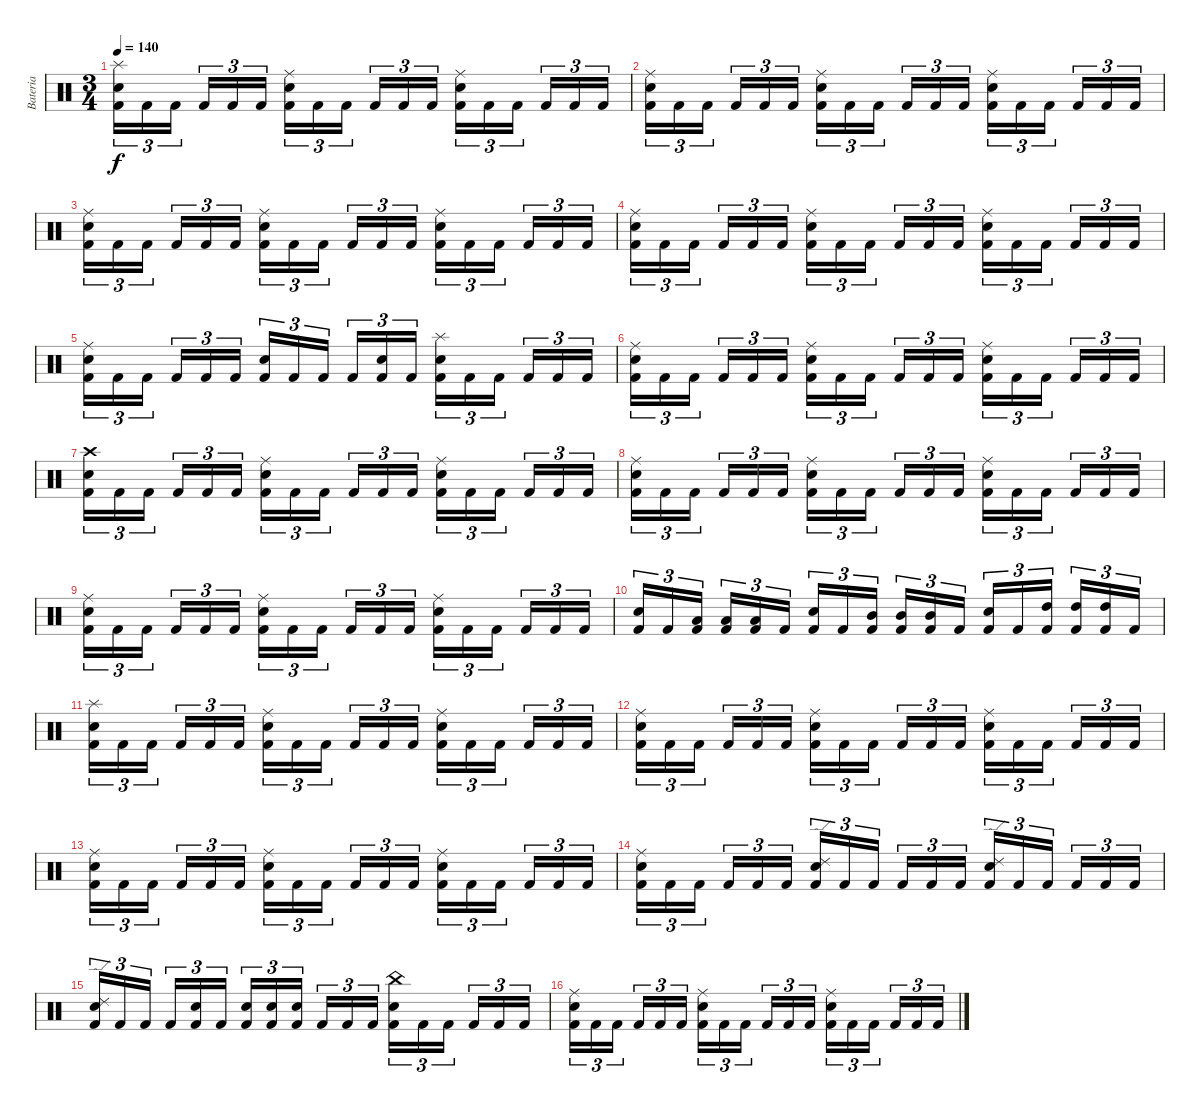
\track ("Bateria" "Bateria") {instrument percussion}
\staff {score}
\articulation defaults
\ts (3 4)
\tempo 140
\clef neutral
\ks c
("Kick (hit) 2" "Electric Snare (hit)" "Splash (hit)").16{tu (3 2) dy f} "Kick (hit) 2".16{tu (3 2)} "Kick (hit) 2".16{tu (3 2)} "Kick (hit) 2".16{tu (3 2)} "Kick (hit) 2".16{tu (3 2)} "Kick (hit) 2".16{tu (3 2)} ("Kick (hit) 2" "Electric Snare (hit)" "Ride (middle)").16{tu (3 2)} "Kick (hit) 2".16{tu (3 2)} "Kick (hit) 2".16{tu (3 2)} "Kick (hit) 2".16{tu (3 2)} "Kick (hit) 2".16{tu (3 2)} "Kick (hit) 2".16{tu (3 2)} ("Kick (hit) 2" "Electric Snare (hit)" "Ride (middle)").16{tu (3 2)} "Kick (hit) 2".16{tu (3 2)} "Kick (hit) 2".16{tu (3 2)} "Kick (hit) 2".16{tu (3 2)} "Kick (hit) 2".16{tu (3 2)} "Kick (hit) 2".16{tu (3 2)} |
("Kick (hit) 2" "Electric Snare (hit)" "Ride (middle)").16{tu (3 2)} "Kick (hit) 2".16{tu (3 2)} "Kick (hit) 2".16{tu (3 2)} "Kick (hit) 2".16{tu (3 2)} "Kick (hit) 2".16{tu (3 2)} "Kick (hit) 2".16{tu (3 2)} ("Kick (hit) 2" "Electric Snare (hit)" "Ride (middle)").16{tu (3 2)} "Kick (hit) 2".16{tu (3 2)} "Kick (hit) 2".16{tu (3 2)} "Kick (hit) 2".16{tu (3 2)} "Kick (hit) 2".16{tu (3 2)} "Kick (hit) 2".16{tu (3 2)} ("Kick (hit) 2" "Electric Snare (hit)" "Ride (middle)").16{tu (3 2)} "Kick (hit) 2".16{tu (3 2)} "Kick (hit) 2".16{tu (3 2)} "Kick (hit) 2".16{tu (3 2)} "Kick (hit) 2".16{tu (3 2)} "Kick (hit) 2".16{tu (3 2)} |
("Kick (hit) 2" "Electric Snare (hit)" "Ride (middle)").16{tu (3 2)} "Kick (hit) 2".16{tu (3 2)} "Kick (hit) 2".16{tu (3 2)} "Kick (hit) 2".16{tu (3 2)} "Kick (hit) 2".16{tu (3 2)} "Kick (hit) 2".16{tu (3 2)} ("Kick (hit) 2" "Electric Snare (hit)" "Ride (middle)").16{tu (3 2)} "Kick (hit) 2".16{tu (3 2)} "Kick (hit) 2".16{tu (3 2)} "Kick (hit) 2".16{tu (3 2)} "Kick (hit) 2".16{tu (3 2)} "Kick (hit) 2".16{tu (3 2)} ("Kick (hit) 2" "Electric Snare (hit)" "Ride (middle)").16{tu (3 2)} "Kick (hit) 2".16{tu (3 2)} "Kick (hit) 2".16{tu (3 2)} "Kick (hit) 2".16{tu (3 2)} "Kick (hit) 2".16{tu (3 2)} "Kick (hit) 2".16{tu (3 2)} |
("Kick (hit) 2" "Electric Snare (hit)" "Ride (middle)").16{tu (3 2)} "Kick (hit) 2".16{tu (3 2)} "Kick (hit) 2".16{tu (3 2)} "Kick (hit) 2".16{tu (3 2)} "Kick (hit) 2".16{tu (3 2)} "Kick (hit) 2".16{tu (3 2)} ("Kick (hit) 2" "Electric Snare (hit)" "Ride (middle)").16{tu (3 2)} "Kick (hit) 2".16{tu (3 2)} "Kick (hit) 2".16{tu (3 2)} "Kick (hit) 2".16{tu (3 2)} "Kick (hit) 2".16{tu (3 2)} "Kick (hit) 2".16{tu (3 2)} ("Kick (hit) 2" "Electric Snare (hit)" "Ride (middle)").16{tu (3 2)} "Kick (hit) 2".16{tu (3 2)} "Kick (hit) 2".16{tu (3 2)} "Kick (hit) 2".16{tu (3 2)} "Kick (hit) 2".16{tu (3 2)} "Kick (hit) 2".16{tu (3 2)} |
("Kick (hit) 2" "Electric Snare (hit)" "Ride (middle)").16{tu (3 2)} "Kick (hit) 2".16{tu (3 2)} "Kick (hit) 2".16{tu (3 2)} "Kick (hit) 2".16{tu (3 2)} "Kick (hit) 2".16{tu (3 2)} "Kick (hit) 2".16{tu (3 2)} ("Kick (hit) 2" "Electric Snare (hit)").16{tu (3 2)} "Kick (hit) 2".16{tu (3 2)} "Kick (hit) 2".16{tu (3 2)} "Kick (hit) 2".16{tu (3 2)} ("Kick (hit) 2" "Electric Snare (hit)").16{tu (3 2)} "Kick (hit) 2".16{tu (3 2)} ("Kick (hit) 2" "Electric Snare (hit)" "Splash (hit)").16{tu (3 2)} "Kick (hit) 2".16{tu (3 2)} "Kick (hit) 2".16{tu (3 2)} "Kick (hit) 2".16{tu (3 2)} "Kick (hit) 2".16{tu (3 2)} "Kick (hit) 2".16{tu (3 2)} |
("Kick (hit) 2" "Electric Snare (hit)" "Ride (middle)").16{tu (3 2)} "Kick (hit) 2".16{tu (3 2)} "Kick (hit) 2".16{tu (3 2)} "Kick (hit) 2".16{tu (3 2)} "Kick (hit) 2".16{tu (3 2)} "Kick (hit) 2".16{tu (3 2)} ("Kick (hit) 2" "Electric Snare (hit)" "Ride (middle)").16{tu (3 2)} "Kick (hit) 2".16{tu (3 2)} "Kick (hit) 2".16{tu (3 2)} "Kick (hit) 2".16{tu (3 2)} "Kick (hit) 2".16{tu (3 2)} "Kick (hit) 2".16{tu (3 2)} ("Kick (hit) 2" "Electric Snare (hit)" "Ride (middle)").16{tu (3 2)} "Kick (hit) 2".16{tu (3 2)} "Kick (hit) 2".16{tu (3 2)} "Kick (hit) 2".16{tu (3 2)} "Kick (hit) 2".16{tu (3 2)} "Kick (hit) 2".16{tu (3 2)} |
("Kick (hit) 2" "Electric Snare (hit)" "Crash high (hit)").16{tu (3 2)} "Kick (hit) 2".16{tu (3 2)} "Kick (hit) 2".16{tu (3 2)} "Kick (hit) 2".16{tu (3 2)} "Kick (hit) 2".16{tu (3 2)} "Kick (hit) 2".16{tu (3 2)} ("Kick (hit) 2" "Electric Snare (hit)" "Ride (middle)").16{tu (3 2)} "Kick (hit) 2".16{tu (3 2)} "Kick (hit) 2".16{tu (3 2)} "Kick (hit) 2".16{tu (3 2)} "Kick (hit) 2".16{tu (3 2)} "Kick (hit) 2".16{tu (3 2)} ("Kick (hit) 2" "Electric Snare (hit)" "Ride (middle)").16{tu (3 2)} "Kick (hit) 2".16{tu (3 2)} "Kick (hit) 2".16{tu (3 2)} "Kick (hit) 2".16{tu (3 2)} "Kick (hit) 2".16{tu (3 2)} "Kick (hit) 2".16{tu (3 2)} |
("Kick (hit) 2" "Electric Snare (hit)" "Ride (middle)").16{tu (3 2)} "Kick (hit) 2".16{tu (3 2)} "Kick (hit) 2".16{tu (3 2)} "Kick (hit) 2".16{tu (3 2)} "Kick (hit) 2".16{tu (3 2)} "Kick (hit) 2".16{tu (3 2)} ("Kick (hit) 2" "Electric Snare (hit)" "Ride (middle)").16{tu (3 2)} "Kick (hit) 2".16{tu (3 2)} "Kick (hit) 2".16{tu (3 2)} "Kick (hit) 2".16{tu (3 2)} "Kick (hit) 2".16{tu (3 2)} "Kick (hit) 2".16{tu (3 2)} ("Kick (hit) 2" "Electric Snare (hit)" "Ride (middle)").16{tu (3 2)} "Kick (hit) 2".16{tu (3 2)} "Kick (hit) 2".16{tu (3 2)} "Kick (hit) 2".16{tu (3 2)} "Kick (hit) 2".16{tu (3 2)} "Kick (hit) 2".16{tu (3 2)} |
("Kick (hit) 2" "Electric Snare (hit)" "Ride (middle)").16{tu (3 2)} "Kick (hit) 2".16{tu (3 2)} "Kick (hit) 2".16{tu (3 2)} "Kick (hit) 2".16{tu (3 2)} "Kick (hit) 2".16{tu (3 2)} "Kick (hit) 2".16{tu (3 2)} ("Kick (hit) 2" "Electric Snare (hit)" "Ride (middle)").16{tu (3 2)} "Kick (hit) 2".16{tu (3 2)} "Kick (hit) 2".16{tu (3 2)} "Kick (hit) 2".16{tu (3 2)} "Kick (hit) 2".16{tu (3 2)} "Kick (hit) 2".16{tu (3 2)} ("Kick (hit) 2" "Electric Snare (hit)" "Ride (middle)").16{tu (3 2)} "Kick (hit) 2".16{tu (3 2)} "Kick (hit) 2".16{tu (3 2)} "Kick (hit) 2".16{tu (3 2)} "Kick (hit) 2".16{tu (3 2)} "Kick (hit) 2".16{tu (3 2)} |
("Kick (hit) 2" "Electric Snare (hit)").16{tu (3 2)} "Kick (hit) 2".16{tu (3 2)} ("Kick (hit) 2" "Low Tom (hit)").16{tu (3 2)} ("Kick (hit) 2" "Low Tom (hit)").16{tu (3 2)} ("Kick (hit) 2" "Low Tom (hit)").16{tu (3 2)} "Kick (hit) 2".16{tu (3 2)} ("Kick (hit) 2" "Electric Snare (hit)").16{tu (3 2)} "Kick (hit) 2".16{tu (3 2)} ("Kick (hit) 2" "Mid Tom (hit)").16{tu (3 2)} ("Kick (hit) 2" "Mid Tom (hit)").16{tu (3 2)} ("Kick (hit) 2" "Mid Tom (hit)").16{tu (3 2)} "Kick (hit) 2".16{tu (3 2)} ("Kick (hit) 2" "Electric Snare (hit)").16{tu (3 2)} "Kick (hit) 2".16{tu (3 2)} ("Kick (hit) 2" "High Tom (hit)").16{tu (3 2)} ("Kick (hit) 2" "High Tom (hit)").16{tu (3 2)} ("Kick (hit) 2" "High Tom (hit)").16{tu (3 2)} "Kick (hit) 2".16{tu (3 2)} |
("Kick (hit) 2" "Electric Snare (hit)" "Splash (hit)").16{tu (3 2)} "Kick (hit) 2".16{tu (3 2)} "Kick (hit) 2".16{tu (3 2)} "Kick (hit) 2".16{tu (3 2)} "Kick (hit) 2".16{tu (3 2)} "Kick (hit) 2".16{tu (3 2)} ("Kick (hit) 2" "Electric Snare (hit)" "Ride (middle)").16{tu (3 2)} "Kick (hit) 2".16{tu (3 2)} "Kick (hit) 2".16{tu (3 2)} "Kick (hit) 2".16{tu (3 2)} "Kick (hit) 2".16{tu (3 2)} "Kick (hit) 2".16{tu (3 2)} ("Kick (hit) 2" "Electric Snare (hit)" "Ride (middle)").16{tu (3 2)} "Kick (hit) 2".16{tu (3 2)} "Kick (hit) 2".16{tu (3 2)} "Kick (hit) 2".16{tu (3 2)} "Kick (hit) 2".16{tu (3 2)} "Kick (hit) 2".16{tu (3 2)} |
("Kick (hit) 2" "Electric Snare (hit)" "Ride (middle)").16{tu (3 2)} "Kick (hit) 2".16{tu (3 2)} "Kick (hit) 2".16{tu (3 2)} "Kick (hit) 2".16{tu (3 2)} "Kick (hit) 2".16{tu (3 2)} "Kick (hit) 2".16{tu (3 2)} ("Kick (hit) 2" "Electric Snare (hit)" "Ride (middle)").16{tu (3 2)} "Kick (hit) 2".16{tu (3 2)} "Kick (hit) 2".16{tu (3 2)} "Kick (hit) 2".16{tu (3 2)} "Kick (hit) 2".16{tu (3 2)} "Kick (hit) 2".16{tu (3 2)} ("Kick (hit) 2" "Electric Snare (hit)" "Ride (middle)").16{tu (3 2)} "Kick (hit) 2".16{tu (3 2)} "Kick (hit) 2".16{tu (3 2)} "Kick (hit) 2".16{tu (3 2)} "Kick (hit) 2".16{tu (3 2)} "Kick (hit) 2".16{tu (3 2)} |
("Kick (hit) 2" "Electric Snare (hit)" "Ride (middle)").16{tu (3 2)} "Kick (hit) 2".16{tu (3 2)} "Kick (hit) 2".16{tu (3 2)} "Kick (hit) 2".16{tu (3 2)} "Kick (hit) 2".16{tu (3 2)} "Kick (hit) 2".16{tu (3 2)} ("Kick (hit) 2" "Electric Snare (hit)" "Ride (middle)").16{tu (3 2)} "Kick (hit) 2".16{tu (3 2)} "Kick (hit) 2".16{tu (3 2)} "Kick (hit) 2".16{tu (3 2)} "Kick (hit) 2".16{tu (3 2)} "Kick (hit) 2".16{tu (3 2)} ("Kick (hit) 2" "Electric Snare (hit)" "Ride (middle)").16{tu (3 2)} "Kick (hit) 2".16{tu (3 2)} "Kick (hit) 2".16{tu (3 2)} "Kick (hit) 2".16{tu (3 2)} "Kick (hit) 2".16{tu (3 2)} "Kick (hit) 2".16{tu (3 2)} |
("Kick (hit) 2" "Electric Snare (hit)" "Ride (middle)").16{tu (3 2)} "Kick (hit) 2".16{tu (3 2)} "Kick (hit) 2".16{tu (3 2)} "Kick (hit) 2".16{tu (3 2)} "Kick (hit) 2".16{tu (3 2)} "Kick (hit) 2".16{tu (3 2)} ("Kick (hit) 2" "Electric Snare (hit)" "Ride (edge) 2").16{tu (3 2)} "Kick (hit) 2".16{tu (3 2)} "Kick (hit) 2".16{tu (3 2)} "Kick (hit) 2".16{tu (3 2)} "Kick (hit) 2".16{tu (3 2)} "Kick (hit) 2".16{tu (3 2)} ("Kick (hit) 2" "Electric Snare (hit)" "Ride (edge) 2").16{tu (3 2)} "Kick (hit) 2".16{tu (3 2)} "Kick (hit) 2".16{tu (3 2)} "Kick (hit) 2".16{tu (3 2)} "Kick (hit) 2".16{tu (3 2)} "Kick (hit) 2".16{tu (3 2)} |
("Kick (hit) 2" "Electric Snare (hit)" "Ride (edge) 2").16{tu (3 2)} "Kick (hit) 2".16{tu (3 2)} "Kick (hit) 2".16{tu (3 2)} "Kick (hit) 2".16{tu (3 2)} ("Kick (hit) 2" "Electric Snare (hit)").16{tu (3 2)} "Kick (hit) 2".16{tu (3 2)} ("Kick (hit) 2" "Electric Snare (hit)").16{tu (3 2)} ("Kick (hit) 2" "Electric Snare (hit)").16{tu (3 2)} ("Kick (hit) 2" "Electric Snare (hit)").16{tu (3 2)} "Kick (hit) 2".16{tu (3 2)} "Kick (hit) 2".16{tu (3 2)} "Kick (hit) 2".16{tu (3 2)} ("Kick (hit) 2" "Electric Snare (hit)" "China (hit)").16{tu (3 2)} "Kick (hit) 2".16{tu (3 2)} "Kick (hit) 2".16{tu (3 2)} "Kick (hit) 2".16{tu (3 2)} "Kick (hit) 2".16{tu (3 2)} "Kick (hit) 2".16{tu (3 2)} |
("Kick (hit) 2" "Electric Snare (hit)" "Ride (middle)").16{tu (3 2)} "Kick (hit) 2".16{tu (3 2)} "Kick (hit) 2".16{tu (3 2)} "Kick (hit) 2".16{tu (3 2)} "Kick (hit) 2".16{tu (3 2)} "Kick (hit) 2".16{tu (3 2)} ("Kick (hit) 2" "Electric Snare (hit)" "Ride (middle)").16{tu (3 2)} "Kick (hit) 2".16{tu (3 2)} "Kick (hit) 2".16{tu (3 2)} "Kick (hit) 2".16{tu (3 2)} "Kick (hit) 2".16{tu (3 2)} "Kick (hit) 2".16{tu (3 2)} ("Kick (hit) 2" "Electric Snare (hit)" "Ride (middle)").16{tu (3 2)} "Kick (hit) 2".16{tu (3 2)} "Kick (hit) 2".16{tu (3 2)} "Kick (hit) 2".16{tu (3 2)} "Kick (hit) 2".16{tu (3 2)} "Kick (hit) 2".16{tu (3 2)}
